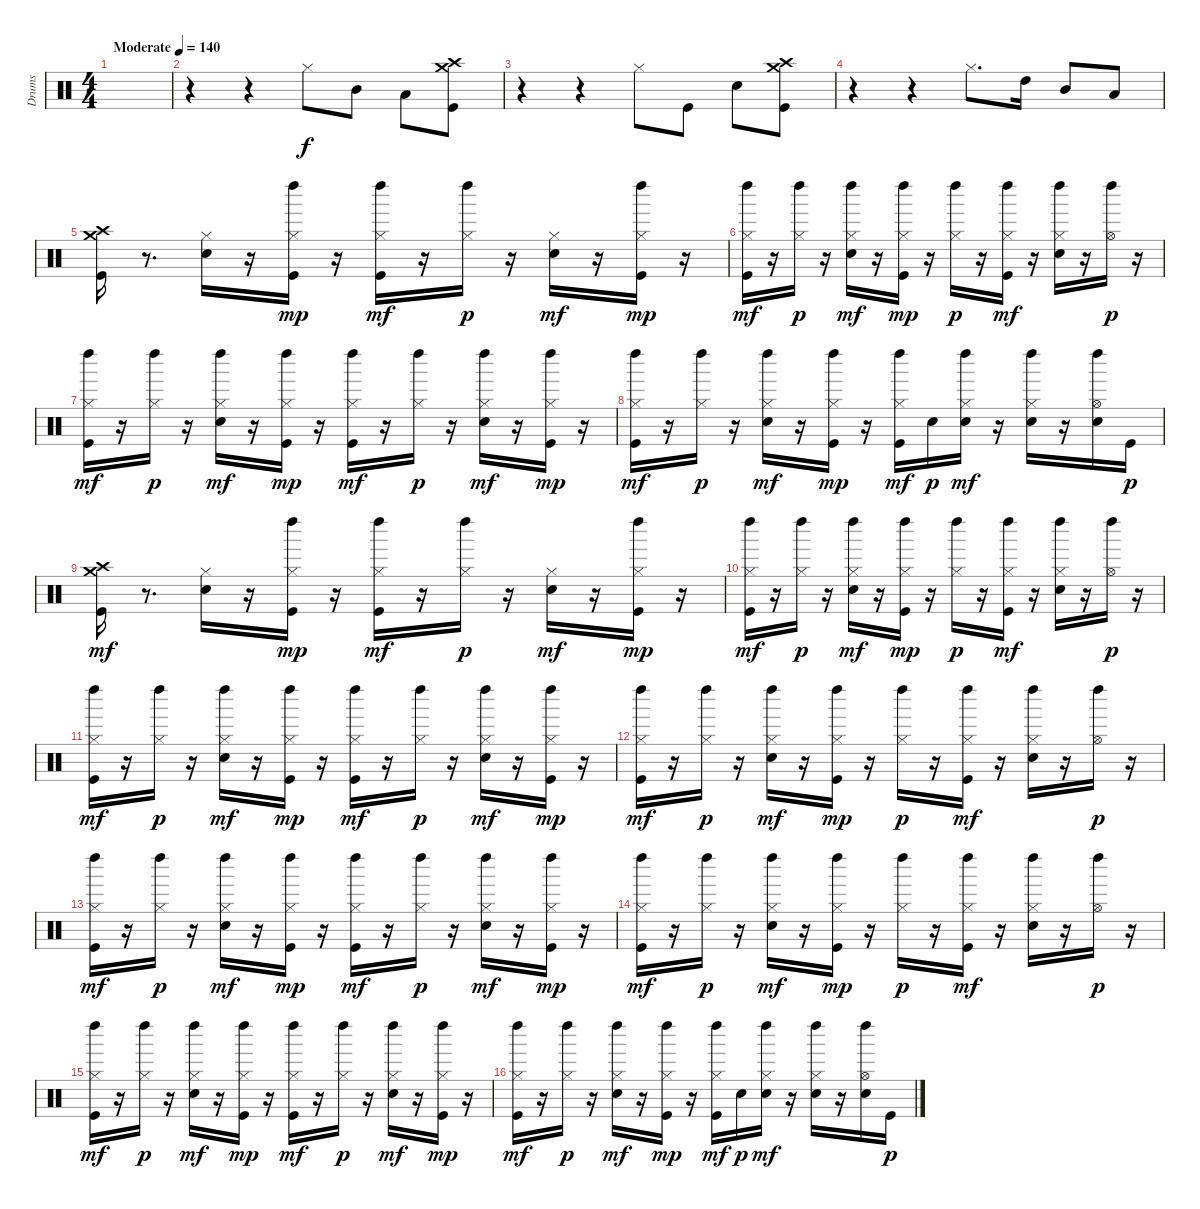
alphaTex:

\track ("Drums" "Drums") {instrument percussion}
\staff {score}
\articulation defaults
\ts (4 4)
\tempo (140 "Moderate")
\clef neutral
\ks c
|
r.4 r.4 "Hi-Hat (closed)".8 "Mid Tom (hit)".8 "Low Tom (hit)".8 ("Crash medium (hit)" "Crash high (hit)" "Kick (hit)").8 |
r.4 r.4 "Hi-Hat (closed)".8 "Kick (hit)".8 "Snare (hit) 2".8 ("Crash medium (hit)" "Crash high (hit)" "Kick (hit)").8 |
r.4 r.4 "Hi-Hat (closed)".8{d} "High Tom (hit)".16 "Mid Tom (hit)".8 "Low Tom (hit)".8 |
("Crash medium (hit)" "Crash high (hit)" "Kick (hit)").16 r.8{d} ("Hi-Hat (closed)" "Snare (hit) 2").16 r.16 ("Hi-Hat (closed)" "Left Maraca (hit)" "Kick (hit)").16{dy mp} r.16 ("Hi-Hat (closed)" "Left Maraca (hit)" "Kick (hit)").16{dy mf} r.16 ("Hi-Hat (closed)" "Left Maraca (hit)").16{dy p} r.16 ("Hi-Hat (closed)" "Snare (hit) 2").16{dy mf} r.16 ("Hi-Hat (closed)" "Left Maraca (hit)" "Kick (hit)").16{dy mp} r.16 |
("Hi-Hat (closed)" "Left Maraca (hit)" "Kick (hit)").16{dy mf} r.16 ("Hi-Hat (closed)" "Left Maraca (hit)").16{dy p} r.16 ("Hi-Hat (closed)" "Left Maraca (hit)" "Snare (hit) 2").16{dy mf} r.16 ("Hi-Hat (closed)" "Left Maraca (hit)" "Kick (hit)").16{dy mp} r.16 ("Hi-Hat (closed)" "Left Maraca (hit)").16{dy p} r.16 ("Hi-Hat (closed)" "Left Maraca (hit)" "Kick (hit)").16{dy mf} r.16 ("Hi-Hat (closed)" "Left Maraca (hit)" "Snare (hit) 2").16 r.16 ("Hi-Hat (open)" "Left Maraca (hit)").16{dy p} r.16 |
("Hi-Hat (closed)" "Left Maraca (hit)" "Kick (hit)").16{dy mf} r.16 ("Hi-Hat (closed)" "Left Maraca (hit)").16{dy p} r.16 ("Hi-Hat (closed)" "Left Maraca (hit)" "Snare (hit) 2").16{dy mf} r.16 ("Hi-Hat (closed)" "Left Maraca (hit)" "Kick (hit)").16{dy mp} r.16 ("Hi-Hat (closed)" "Left Maraca (hit)" "Kick (hit)").16{dy mf} r.16 ("Hi-Hat (closed)" "Left Maraca (hit)").16{dy p} r.16 ("Hi-Hat (closed)" "Left Maraca (hit)" "Snare (hit) 2").16{dy mf} r.16 ("Hi-Hat (closed)" "Left Maraca (hit)" "Kick (hit)").16{dy mp} r.16 |
("Hi-Hat (closed)" "Left Maraca (hit)" "Kick (hit)").16{dy mf} r.16 ("Hi-Hat (closed)" "Left Maraca (hit)").16{dy p} r.16 ("Hi-Hat (closed)" "Left Maraca (hit)" "Snare (hit) 2").16{dy mf} r.16 ("Hi-Hat (closed)" "Left Maraca (hit)" "Kick (hit)").16{dy mp} r.16 ("Hi-Hat (closed)" "Left Maraca (hit)" "Kick (hit)").16{dy mf} "Snare (hit) 2".16{dy p} ("Hi-Hat (closed)" "Left Maraca (hit)" "Snare (hit) 2").16{dy mf} r.16 ("Hi-Hat (closed)" "Left Maraca (hit)" "Snare (hit) 2").16 r.16 ("Hi-Hat (open)" "Left Maraca (hit)" "Snare (hit) 2").16 "Kick (hit)".16{dy p} |
("Crash medium (hit)" "Crash high (hit)" "Kick (hit)").16{dy mf} r.8{d} ("Hi-Hat (closed)" "Snare (hit) 2").16 r.16 ("Hi-Hat (closed)" "Left Maraca (hit)" "Kick (hit)").16{dy mp} r.16 ("Hi-Hat (closed)" "Left Maraca (hit)" "Kick (hit)").16{dy mf} r.16 ("Hi-Hat (closed)" "Left Maraca (hit)").16{dy p} r.16 ("Hi-Hat (closed)" "Snare (hit) 2").16{dy mf} r.16 ("Hi-Hat (closed)" "Left Maraca (hit)" "Kick (hit)").16{dy mp} r.16 |
("Hi-Hat (closed)" "Left Maraca (hit)" "Kick (hit)").16{dy mf} r.16 ("Hi-Hat (closed)" "Left Maraca (hit)").16{dy p} r.16 ("Hi-Hat (closed)" "Left Maraca (hit)" "Snare (hit) 2").16{dy mf} r.16 ("Hi-Hat (closed)" "Left Maraca (hit)" "Kick (hit)").16{dy mp} r.16 ("Hi-Hat (closed)" "Left Maraca (hit)").16{dy p} r.16 ("Hi-Hat (closed)" "Left Maraca (hit)" "Kick (hit)").16{dy mf} r.16 ("Hi-Hat (closed)" "Left Maraca (hit)" "Snare (hit) 2").16 r.16 ("Hi-Hat (open)" "Left Maraca (hit)").16{dy p} r.16 |
("Hi-Hat (closed)" "Left Maraca (hit)" "Kick (hit)").16{dy mf} r.16 ("Hi-Hat (closed)" "Left Maraca (hit)").16{dy p} r.16 ("Hi-Hat (closed)" "Left Maraca (hit)" "Snare (hit) 2").16{dy mf} r.16 ("Hi-Hat (closed)" "Left Maraca (hit)" "Kick (hit)").16{dy mp} r.16 ("Hi-Hat (closed)" "Left Maraca (hit)" "Kick (hit)").16{dy mf} r.16 ("Hi-Hat (closed)" "Left Maraca (hit)").16{dy p} r.16 ("Hi-Hat (closed)" "Left Maraca (hit)" "Snare (hit) 2").16{dy mf} r.16 ("Hi-Hat (closed)" "Left Maraca (hit)" "Kick (hit)").16{dy mp} r.16 |
("Hi-Hat (closed)" "Left Maraca (hit)" "Kick (hit)").16{dy mf} r.16 ("Hi-Hat (closed)" "Left Maraca (hit)").16{dy p} r.16 ("Hi-Hat (closed)" "Left Maraca (hit)" "Snare (hit) 2").16{dy mf} r.16 ("Hi-Hat (closed)" "Left Maraca (hit)" "Kick (hit)").16{dy mp} r.16 ("Hi-Hat (closed)" "Left Maraca (hit)").16{dy p} r.16 ("Hi-Hat (closed)" "Left Maraca (hit)" "Kick (hit)").16{dy mf} r.16 ("Hi-Hat (closed)" "Left Maraca (hit)" "Snare (hit) 2").16 r.16 ("Hi-Hat (open)" "Left Maraca (hit)").16{dy p} r.16 |
("Hi-Hat (closed)" "Left Maraca (hit)" "Kick (hit)").16{dy mf} r.16 ("Hi-Hat (closed)" "Left Maraca (hit)").16{dy p} r.16 ("Hi-Hat (closed)" "Left Maraca (hit)" "Snare (hit) 2").16{dy mf} r.16 ("Hi-Hat (closed)" "Left Maraca (hit)" "Kick (hit)").16{dy mp} r.16 ("Hi-Hat (closed)" "Left Maraca (hit)" "Kick (hit)").16{dy mf} r.16 ("Hi-Hat (closed)" "Left Maraca (hit)").16{dy p} r.16 ("Hi-Hat (closed)" "Left Maraca (hit)" "Snare (hit) 2").16{dy mf} r.16 ("Hi-Hat (closed)" "Left Maraca (hit)" "Kick (hit)").16{dy mp} r.16 |
("Hi-Hat (closed)" "Left Maraca (hit)" "Kick (hit)").16{dy mf} r.16 ("Hi-Hat (closed)" "Left Maraca (hit)").16{dy p} r.16 ("Hi-Hat (closed)" "Left Maraca (hit)" "Snare (hit) 2").16{dy mf} r.16 ("Hi-Hat (closed)" "Left Maraca (hit)" "Kick (hit)").16{dy mp} r.16 ("Hi-Hat (closed)" "Left Maraca (hit)").16{dy p} r.16 ("Hi-Hat (closed)" "Left Maraca (hit)" "Kick (hit)").16{dy mf} r.16 ("Hi-Hat (closed)" "Left Maraca (hit)" "Snare (hit) 2").16 r.16 ("Hi-Hat (open)" "Left Maraca (hit)").16{dy p} r.16 |
("Hi-Hat (closed)" "Left Maraca (hit)" "Kick (hit)").16{dy mf} r.16 ("Hi-Hat (closed)" "Left Maraca (hit)").16{dy p} r.16 ("Hi-Hat (closed)" "Left Maraca (hit)" "Snare (hit) 2").16{dy mf} r.16 ("Hi-Hat (closed)" "Left Maraca (hit)" "Kick (hit)").16{dy mp} r.16 ("Hi-Hat (closed)" "Left Maraca (hit)" "Kick (hit)").16{dy mf} r.16 ("Hi-Hat (closed)" "Left Maraca (hit)").16{dy p} r.16 ("Hi-Hat (closed)" "Left Maraca (hit)" "Snare (hit) 2").16{dy mf} r.16 ("Hi-Hat (closed)" "Left Maraca (hit)" "Kick (hit)").16{dy mp} r.16 |
("Hi-Hat (closed)" "Left Maraca (hit)" "Kick (hit)").16{dy mf} r.16 ("Hi-Hat (closed)" "Left Maraca (hit)").16{dy p} r.16 ("Hi-Hat (closed)" "Left Maraca (hit)" "Snare (hit) 2").16{dy mf} r.16 ("Hi-Hat (closed)" "Left Maraca (hit)" "Kick (hit)").16{dy mp} r.16 ("Hi-Hat (closed)" "Left Maraca (hit)" "Kick (hit)").16{dy mf} "Snare (hit) 2".16{dy p} ("Hi-Hat (closed)" "Left Maraca (hit)" "Snare (hit) 2").16{dy mf} r.16 ("Hi-Hat (closed)" "Left Maraca (hit)" "Snare (hit) 2").16 r.16 ("Hi-Hat (open)" "Left Maraca (hit)" "Snare (hit) 2").16 "Kick (hit)".16{dy p}
